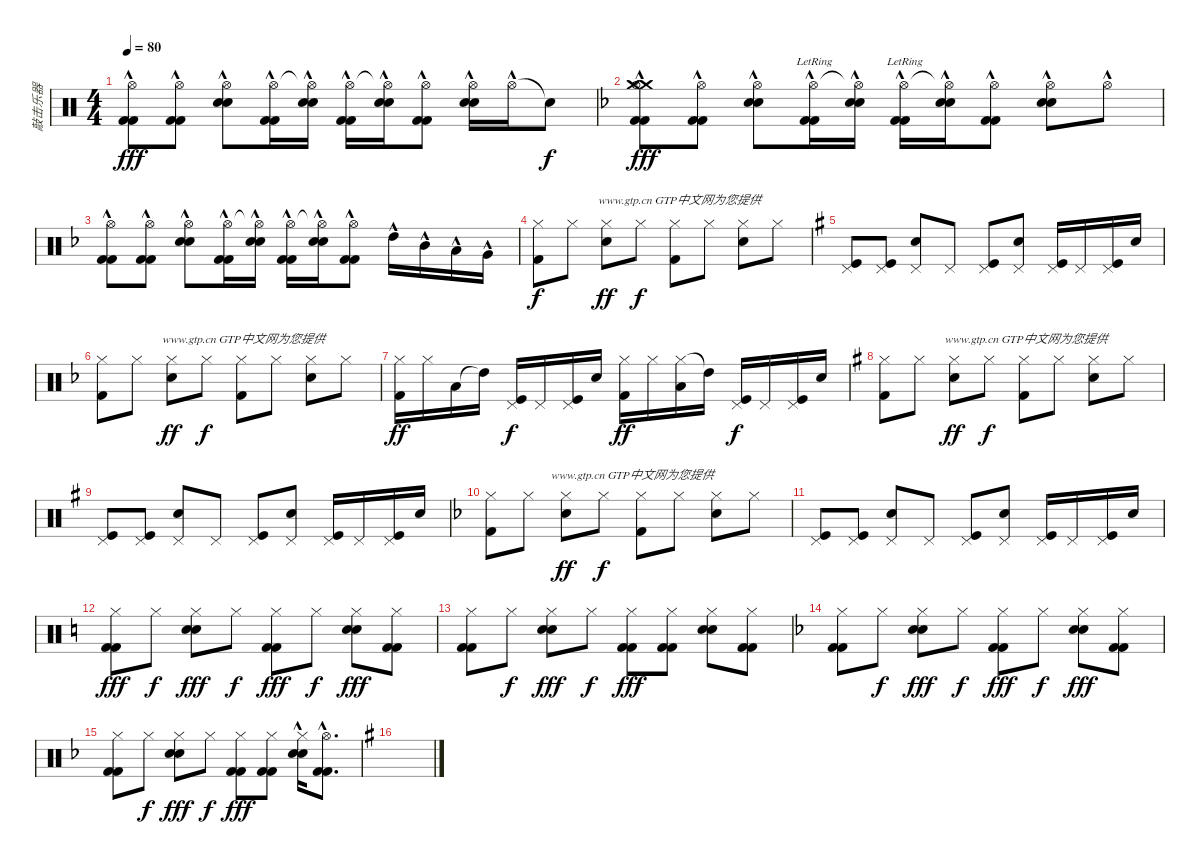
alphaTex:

\track ("敲击乐器" "敲击乐器") {instrument percussion}
\staff {score}
\articulation defaults
\ts (4 4)
\tempo 80
\clef neutral
\ks c
("Hi-Hat (open)"{hac} "Kick (hit) 2"{hac} "Kick (hit) 2"{hac}).8{dy fff} ("Hi-Hat (open)"{hac} "Kick (hit) 2"{hac} "Kick (hit) 2"{hac}).8 ("Hi-Hat (open)"{hac} "Electric Snare (hit)"{hac} "Electric Snare (hit)"{hac}).8 ("Hi-Hat (open)"{hac} "Kick (hit) 2"{hac} "Kick (hit) 2"{hac}).16 ("Hi-Hat (open)"{t} "Electric Snare (hit)"{hac} "Electric Snare (hit)"{hac}).16 ("Hi-Hat (open)"{hac} "Kick (hit) 2"{hac} "Kick (hit) 2"{hac}).16 ("Hi-Hat (open)"{t} "Electric Snare (hit)"{hac} "Electric Snare (hit)"{hac}).16 ("Hi-Hat (open)"{hac} "Kick (hit) 2"{hac} "Kick (hit) 2"{hac}).8 ("Hi-Hat (open)"{hac} "Electric Snare (hit)"{hac} "Electric Snare (hit)"{hac}).16 "Hi-Hat (open)"{hac}.16 "Snare (hit)"{t}.8{dy f} |
\ks f
("Crash medium (hit)"{hac} "Crash medium (hit)"{hac} "Hi-Hat (open)"{hac} "Kick (hit) 2"{hac} "Kick (hit) 2"{hac}).8{dy fff} ("Hi-Hat (open)"{hac} "Kick (hit) 2"{hac} "Kick (hit) 2"{hac}).8 ("Hi-Hat (open)"{hac} "Electric Snare (hit)"{hac} "Electric Snare (hit)"{hac}).8 ("Hi-Hat (open)"{hac lr} "Kick (hit) 2"{hac} "Kick (hit) 2"{hac}).16 ("Hi-Hat (open)"{t} "Electric Snare (hit)"{hac} "Electric Snare (hit)"{hac}).16 ("Hi-Hat (open)"{hac lr} "Kick (hit) 2"{hac} "Kick (hit) 2"{hac}).16 ("Hi-Hat (open)"{t} "Electric Snare (hit)"{hac} "Electric Snare (hit)"{hac}).16 ("Hi-Hat (open)"{hac} "Kick (hit) 2"{hac} "Kick (hit) 2"{hac}).8 ("Hi-Hat (open)"{hac} "Electric Snare (hit)"{hac} "Electric Snare (hit)"{hac}).8 "Hi-Hat (open)"{hac}.8 |
("Hi-Hat (open)"{hac} "Kick (hit) 2"{hac} "Kick (hit) 2"{hac}).8 ("Hi-Hat (open)"{hac} "Kick (hit) 2"{hac} "Kick (hit) 2"{hac}).8 ("Hi-Hat (open)"{hac} "Electric Snare (hit)"{hac} "Electric Snare (hit)"{hac}).8 ("Hi-Hat (open)"{hac} "Kick (hit) 2"{hac} "Kick (hit) 2"{hac}).16 ("Hi-Hat (open)"{t} "Electric Snare (hit)"{hac} "Electric Snare (hit)"{hac}).16 ("Hi-Hat (open)"{hac} "Kick (hit) 2"{hac} "Kick (hit) 2"{hac}).16 ("Hi-Hat (open)"{t} "Electric Snare (hit)"{hac} "Electric Snare (hit)"{hac}).16 ("Hi-Hat (open)"{hac} "Kick (hit) 2"{hac} "Kick (hit) 2"{hac}).8 "High Tom (hit)"{hac}.16 "Mid Tom (hit)"{hac}.16 "Low Tom (hit)"{hac}.16 "Very Low Tom (hit)"{hac}.16 |
("Hi-Hat (closed)" "Kick (hit) 2").8{txt "                    www.gtp.cn GTP中文网为您提供" dy f} "Hi-Hat (closed)".8 ("Hi-Hat (closed)" "Snare (hit) 2").8{dy ff} "Hi-Hat (closed)".8{dy f} ("Hi-Hat (closed)" "Kick (hit) 2").8 "Hi-Hat (closed)".8 ("Hi-Hat (closed)" "Snare (hit) 2").8 "Hi-Hat (closed)".8 |
\ks g
("Pedal Hi-Hat (hit)" "Kick (hit)").8 ("Pedal Hi-Hat (hit)" "Kick (hit)").8 ("Pedal Hi-Hat (hit)" "Electric Snare (hit)").8 "Pedal Hi-Hat (hit)".8 ("Pedal Hi-Hat (hit)" "Kick (hit)").8 ("Pedal Hi-Hat (hit)" "Electric Snare (hit)").8 ("Pedal Hi-Hat (hit)" "Kick (hit)").16 "Pedal Hi-Hat (hit)".16 ("Pedal Hi-Hat (hit)" "Kick (hit)").16 "Electric Snare (hit)".16 |
\ks f
("Hi-Hat (closed)" "Kick (hit) 2").8{txt "                    www.gtp.cn GTP中文网为您提供"} "Hi-Hat (closed)".8 ("Hi-Hat (closed)" "Snare (hit) 2").8{dy ff} "Hi-Hat (closed)".8{dy f} ("Hi-Hat (closed)" "Kick (hit) 2").8 "Hi-Hat (closed)".8 ("Hi-Hat (closed)" "Snare (hit) 2").8 "Hi-Hat (closed)".8 |
("Hi-Hat (closed)" "Kick (hit) 2").16{dy ff} "Hi-Hat (closed)".16 "Low Tom (hit)".16 "High Tom (hit)"{t}.16 ("Pedal Hi-Hat (hit)" "Kick (hit)").16{dy f} "Pedal Hi-Hat (hit)".16 ("Pedal Hi-Hat (hit)" "Kick (hit)").16 "Electric Snare (hit)".16 ("Hi-Hat (closed)" "Kick (hit) 2").16{dy ff} "Hi-Hat (closed)".16 ("Hi-Hat (closed)" "Low Tom (hit)").16 "High Tom (hit)"{t}.16 ("Pedal Hi-Hat (hit)" "Kick (hit)").16{dy f} "Pedal Hi-Hat (hit)".16 ("Pedal Hi-Hat (hit)" "Kick (hit)").16 "Electric Snare (hit)".16 |
\ks g
("Hi-Hat (closed)" "Kick (hit) 2").8{txt "                    www.gtp.cn GTP中文网为您提供"} "Hi-Hat (closed)".8 ("Hi-Hat (closed)" "Snare (hit) 2").8{dy ff} "Hi-Hat (closed)".8{dy f} ("Hi-Hat (closed)" "Kick (hit) 2").8 "Hi-Hat (closed)".8 ("Hi-Hat (closed)" "Snare (hit) 2").8 "Hi-Hat (closed)".8 |
("Pedal Hi-Hat (hit)" "Kick (hit)").8 ("Pedal Hi-Hat (hit)" "Kick (hit)").8 ("Pedal Hi-Hat (hit)" "Electric Snare (hit)").8 "Pedal Hi-Hat (hit)".8 ("Pedal Hi-Hat (hit)" "Kick (hit)").8 ("Pedal Hi-Hat (hit)" "Electric Snare (hit)").8 ("Pedal Hi-Hat (hit)" "Kick (hit)").16 "Pedal Hi-Hat (hit)".16 ("Pedal Hi-Hat (hit)" "Kick (hit)").16 "Electric Snare (hit)".16 |
\ks f
("Hi-Hat (closed)" "Kick (hit) 2").8{txt "                    www.gtp.cn GTP中文网为您提供"} "Hi-Hat (closed)".8 ("Hi-Hat (closed)" "Snare (hit) 2").8{dy ff} "Hi-Hat (closed)".8{dy f} ("Hi-Hat (closed)" "Kick (hit) 2").8 "Hi-Hat (closed)".8 ("Hi-Hat (closed)" "Snare (hit) 2").8 "Hi-Hat (closed)".8 |
("Pedal Hi-Hat (hit)" "Kick (hit)").8 ("Pedal Hi-Hat (hit)" "Kick (hit)").8 ("Pedal Hi-Hat (hit)" "Electric Snare (hit)").8 "Pedal Hi-Hat (hit)".8 ("Pedal Hi-Hat (hit)" "Kick (hit)").8 ("Pedal Hi-Hat (hit)" "Electric Snare (hit)").8 ("Pedal Hi-Hat (hit)" "Kick (hit)").16 "Pedal Hi-Hat (hit)".16 ("Pedal Hi-Hat (hit)" "Kick (hit)").16 "Electric Snare (hit)".16 |
\ks c
("Hi-Hat (closed)" "Kick (hit) 2" "Kick (hit) 2").8{dy fff} "Hi-Hat (closed)".8{dy f} ("Hi-Hat (closed)" "Electric Snare (hit)" "Electric Snare (hit)").8{dy fff} "Hi-Hat (closed)".8{dy f} ("Hi-Hat (closed)" "Kick (hit) 2" "Kick (hit) 2").8{dy fff} "Hi-Hat (closed)".8{dy f} ("Hi-Hat (closed)" "Electric Snare (hit)" "Electric Snare (hit)").8{dy fff} ("Hi-Hat (closed)" "Kick (hit) 2" "Kick (hit) 2").8 |
("Hi-Hat (closed)" "Kick (hit) 2" "Kick (hit) 2").8 "Hi-Hat (closed)".8{dy f} ("Hi-Hat (closed)" "Electric Snare (hit)" "Electric Snare (hit)").8{dy fff} "Hi-Hat (closed)".8{dy f} ("Hi-Hat (closed)" "Kick (hit) 2" "Kick (hit) 2").8{dy fff} ("Hi-Hat (closed)" "Kick (hit) 2" "Kick (hit) 2").8 ("Hi-Hat (closed)" "Electric Snare (hit)" "Electric Snare (hit)").8 ("Hi-Hat (closed)" "Kick (hit) 2" "Kick (hit) 2").8 |
\ks f
("Hi-Hat (closed)" "Kick (hit) 2" "Kick (hit) 2").8 "Hi-Hat (closed)".8{dy f} ("Hi-Hat (closed)" "Electric Snare (hit)" "Electric Snare (hit)").8{dy fff} "Hi-Hat (closed)".8{dy f} ("Hi-Hat (closed)" "Kick (hit) 2" "Kick (hit) 2").8{dy fff} "Hi-Hat (closed)".8{dy f} ("Hi-Hat (closed)" "Electric Snare (hit)" "Electric Snare (hit)").8{dy fff} ("Hi-Hat (closed)" "Kick (hit) 2" "Kick (hit) 2").8 |
("Hi-Hat (closed)" "Kick (hit) 2" "Kick (hit) 2").8 "Hi-Hat (closed)".8{dy f} ("Hi-Hat (closed)" "Electric Snare (hit)" "Electric Snare (hit)").8{dy fff} "Hi-Hat (closed)".8{dy f} ("Hi-Hat (closed)" "Kick (hit) 2" "Kick (hit) 2").8{dy fff} ("Hi-Hat (closed)" "Kick (hit) 2" "Kick (hit) 2").8 ("Hi-Hat (closed)"{hac} "Electric Snare (hit)"{hac} "Electric Snare (hit)"{hac}).16 ("Hi-Hat (open)"{hac} "Kick (hit) 2"{hac} "Kick (hit) 2"{hac}).8{d} |
\ks g
